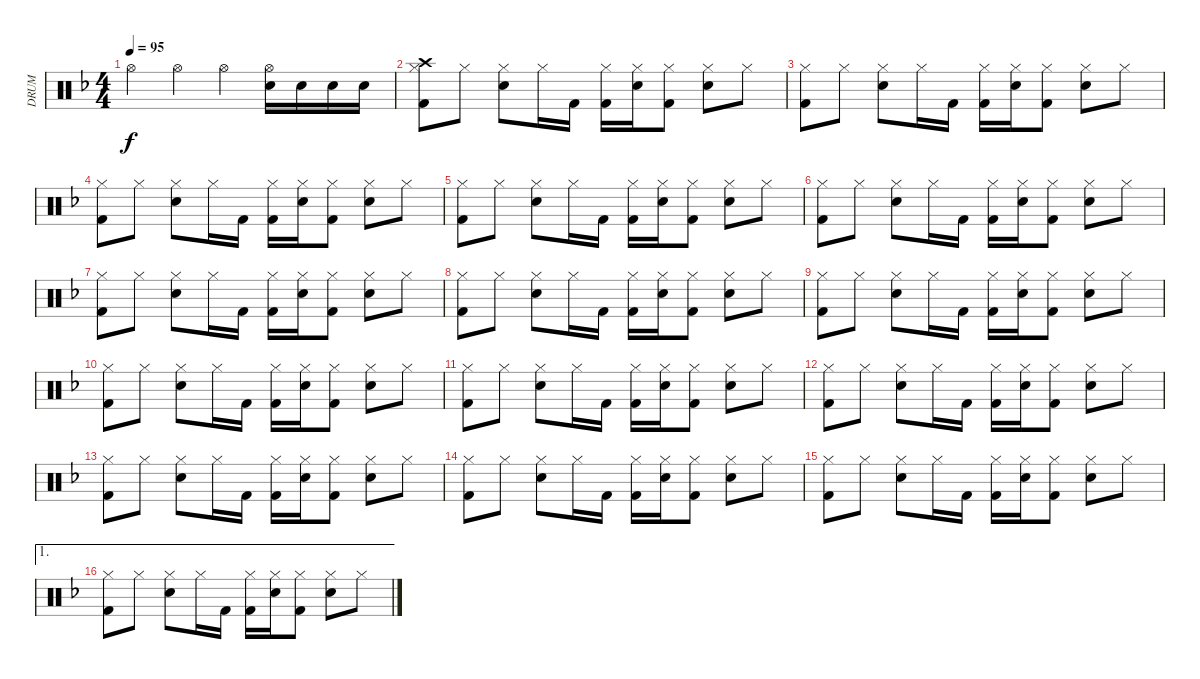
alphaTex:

\track ("DRUM" "DRUM") {instrument percussion}
\staff {score}
\articulation defaults
\ts (4 4)
\tempo 95
\clef neutral
\ks f "Hi-Hat (open)".4{dy f} "Hi-Hat (open)".4 "Hi-Hat (open)".4
("Hi-Hat (open)" "Electric Snare (hit)").16 "Electric Snare (hit)".16 "Electric Snare (hit)".16 "Electric Snare (hit)".16 |
("Hi-Hat (closed)" "Crash high (hit)" "Kick (hit) 2").8 "Hi-Hat (closed)".8 ("Hi-Hat (closed)" "Electric Snare (hit)").8 "Hi-Hat (closed)".16 "Kick (hit) 2".16 ("Hi-Hat (closed)" "Kick (hit) 2").16 ("Hi-Hat (closed)" "Electric Snare (hit)").16 ("Hi-Hat (closed)" "Kick (hit) 2").8 ("Hi-Hat (closed)" "Electric Snare (hit)").8 "Hi-Hat (closed)".8 |
("Hi-Hat (closed)" "Kick (hit) 2").8 "Hi-Hat (closed)".8 ("Hi-Hat (closed)" "Electric Snare (hit)").8 "Hi-Hat (closed)".16 "Kick (hit) 2".16 ("Hi-Hat (closed)" "Kick (hit) 2").16 ("Hi-Hat (closed)" "Electric Snare (hit)").16 ("Hi-Hat (closed)" "Kick (hit) 2").8 ("Hi-Hat (closed)" "Electric Snare (hit)").8 "Hi-Hat (closed)".8 |
("Hi-Hat (closed)" "Kick (hit) 2").8 "Hi-Hat (closed)".8 ("Hi-Hat (closed)" "Electric Snare (hit)").8 "Hi-Hat (closed)".16 "Kick (hit) 2".16 ("Hi-Hat (closed)" "Kick (hit) 2").16 ("Hi-Hat (closed)" "Electric Snare (hit)").16 ("Hi-Hat (closed)" "Kick (hit) 2").8 ("Hi-Hat (closed)" "Electric Snare (hit)").8 "Hi-Hat (closed)".8 |
("Hi-Hat (closed)" "Kick (hit) 2").8 "Hi-Hat (closed)".8 ("Hi-Hat (closed)" "Electric Snare (hit)").8 "Hi-Hat (closed)".16 "Kick (hit) 2".16 ("Hi-Hat (closed)" "Kick (hit) 2").16 ("Hi-Hat (closed)" "Electric Snare (hit)").16 ("Hi-Hat (closed)" "Kick (hit) 2").8 ("Hi-Hat (closed)" "Electric Snare (hit)").8 "Hi-Hat (closed)".8 |
("Hi-Hat (closed)" "Kick (hit) 2").8 "Hi-Hat (closed)".8 ("Hi-Hat (closed)" "Electric Snare (hit)").8 "Hi-Hat (closed)".16 "Kick (hit) 2".16 ("Hi-Hat (closed)" "Kick (hit) 2").16 ("Hi-Hat (closed)" "Electric Snare (hit)").16 ("Hi-Hat (closed)" "Kick (hit) 2").8 ("Hi-Hat (closed)" "Electric Snare (hit)").8 "Hi-Hat (closed)".8 |
("Hi-Hat (closed)" "Kick (hit) 2").8 "Hi-Hat (closed)".8 ("Hi-Hat (closed)" "Electric Snare (hit)").8 "Hi-Hat (closed)".16 "Kick (hit) 2".16 ("Hi-Hat (closed)" "Kick (hit) 2").16 ("Hi-Hat (closed)" "Electric Snare (hit)").16 ("Hi-Hat (closed)" "Kick (hit) 2").8 ("Hi-Hat (closed)" "Electric Snare (hit)").8 "Hi-Hat (closed)".8 |
("Hi-Hat (closed)" "Kick (hit) 2").8 "Hi-Hat (closed)".8 ("Hi-Hat (closed)" "Electric Snare (hit)").8 "Hi-Hat (closed)".16 "Kick (hit) 2".16 ("Hi-Hat (closed)" "Kick (hit) 2").16 ("Hi-Hat (closed)" "Electric Snare (hit)").16 ("Hi-Hat (closed)" "Kick (hit) 2").8 ("Hi-Hat (closed)" "Electric Snare (hit)").8 "Hi-Hat (closed)".8 |
("Hi-Hat (closed)" "Kick (hit) 2").8 "Hi-Hat (closed)".8 ("Hi-Hat (closed)" "Electric Snare (hit)").8 "Hi-Hat (closed)".16 "Kick (hit) 2".16 ("Hi-Hat (closed)" "Kick (hit) 2").16 ("Hi-Hat (closed)" "Electric Snare (hit)").16 ("Hi-Hat (closed)" "Kick (hit) 2").8 ("Hi-Hat (closed)" "Electric Snare (hit)").8 "Hi-Hat (closed)".8 |
("Hi-Hat (closed)" "Kick (hit) 2").8 "Hi-Hat (closed)".8 ("Hi-Hat (closed)" "Electric Snare (hit)").8 "Hi-Hat (closed)".16 "Kick (hit) 2".16 ("Hi-Hat (closed)" "Kick (hit) 2").16 ("Hi-Hat (closed)" "Electric Snare (hit)").16 ("Hi-Hat (closed)" "Kick (hit) 2").8 ("Hi-Hat (closed)" "Electric Snare (hit)").8 "Hi-Hat (closed)".8 |
("Hi-Hat (closed)" "Kick (hit) 2").8 "Hi-Hat (closed)".8 ("Hi-Hat (closed)" "Electric Snare (hit)").8 "Hi-Hat (closed)".16 "Kick (hit) 2".16 ("Hi-Hat (closed)" "Kick (hit) 2").16 ("Hi-Hat (closed)" "Electric Snare (hit)").16 ("Hi-Hat (closed)" "Kick (hit) 2").8 ("Hi-Hat (closed)" "Electric Snare (hit)").8 "Hi-Hat (closed)".8 |
("Hi-Hat (closed)" "Kick (hit) 2").8 "Hi-Hat (closed)".8 ("Hi-Hat (closed)" "Electric Snare (hit)").8 "Hi-Hat (closed)".16 "Kick (hit) 2".16 ("Hi-Hat (closed)" "Kick (hit) 2").16 ("Hi-Hat (closed)" "Electric Snare (hit)").16 ("Hi-Hat (closed)" "Kick (hit) 2").8 ("Hi-Hat (closed)" "Electric Snare (hit)").8 "Hi-Hat (closed)".8 |
("Hi-Hat (closed)" "Kick (hit) 2").8 "Hi-Hat (closed)".8 ("Hi-Hat (closed)" "Electric Snare (hit)").8 "Hi-Hat (closed)".16 "Kick (hit) 2".16 ("Hi-Hat (closed)" "Kick (hit) 2").16 ("Hi-Hat (closed)" "Electric Snare (hit)").16 ("Hi-Hat (closed)" "Kick (hit) 2").8 ("Hi-Hat (closed)" "Electric Snare (hit)").8 "Hi-Hat (closed)".8 |
("Hi-Hat (closed)" "Kick (hit) 2").8 "Hi-Hat (closed)".8 ("Hi-Hat (closed)" "Electric Snare (hit)").8 "Hi-Hat (closed)".16 "Kick (hit) 2".16 ("Hi-Hat (closed)" "Kick (hit) 2").16 ("Hi-Hat (closed)" "Electric Snare (hit)").16 ("Hi-Hat (closed)" "Kick (hit) 2").8 ("Hi-Hat (closed)" "Electric Snare (hit)").8 "Hi-Hat (closed)".8 |
("Hi-Hat (closed)" "Kick (hit) 2").8 "Hi-Hat (closed)".8 ("Hi-Hat (closed)" "Electric Snare (hit)").8 "Hi-Hat (closed)".16 "Kick (hit) 2".16 ("Hi-Hat (closed)" "Kick (hit) 2").16 ("Hi-Hat (closed)" "Electric Snare (hit)").16 ("Hi-Hat (closed)" "Kick (hit) 2").8 ("Hi-Hat (closed)" "Electric Snare (hit)").8 "Hi-Hat (closed)".8 |
\ae 1
("Hi-Hat (closed)" "Kick (hit) 2").8 "Hi-Hat (closed)".8 ("Hi-Hat (closed)" "Electric Snare (hit)").8 "Hi-Hat (closed)".16 "Kick (hit) 2".16 ("Hi-Hat (closed)" "Kick (hit) 2").16 ("Hi-Hat (closed)" "Electric Snare (hit)").16 ("Hi-Hat (closed)" "Kick (hit) 2").8 ("Hi-Hat (closed)" "Electric Snare (hit)").8 "Hi-Hat (closed)".8
